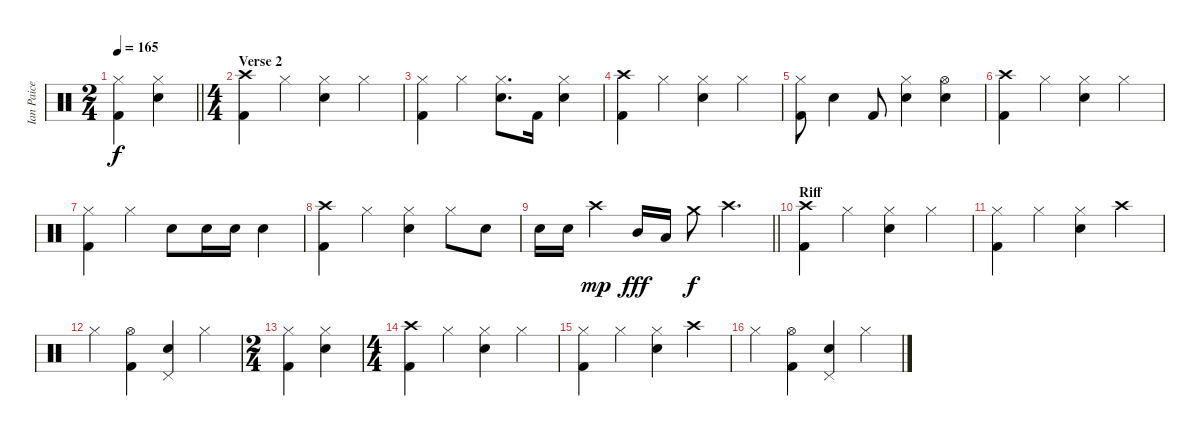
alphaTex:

\track ("Ian Paice" "Ian Paice") {instrument percussion}
\staff {score}
\articulation defaults
\ts (2 4)
\tempo 165
\clef neutral
\barLineRight lightlight
\ks c
("Hi-Hat (closed)" "Kick (hit) 2").4{dy f} ("Hi-Hat (closed)" "Snare (hit) 2").4 |
\ts (4 4)
\section ("" "Verse 2")
("Crash high (hit)" "Kick (hit) 2").4 "Hi-Hat (closed)".4 ("Hi-Hat (closed)" "Snare (hit) 2").4 "Hi-Hat (closed)".4 |
("Hi-Hat (closed)" "Kick (hit) 2").4 "Hi-Hat (closed)".4 ("Hi-Hat (closed)" "Snare (hit) 2").8{d} "Kick (hit) 2".16 ("Hi-Hat (closed)" "Snare (hit) 2").4 |
("Crash high (hit)" "Kick (hit) 2").4 "Hi-Hat (closed)".4 ("Hi-Hat (closed)" "Snare (hit) 2").4 "Hi-Hat (closed)".4 |
("Hi-Hat (closed)" "Kick (hit) 2").8 "Snare (hit) 2".4 "Kick (hit) 2".8 ("Hi-Hat (closed)" "Snare (hit) 2").4 ("Hi-Hat (open)" "Snare (hit) 2").4 |
("Crash high (hit)" "Kick (hit) 2").4 "Hi-Hat (closed)".4 ("Hi-Hat (closed)" "Snare (hit) 2").4 "Hi-Hat (closed)".4 |
("Hi-Hat (closed)" "Kick (hit) 2").4 "Hi-Hat (closed)".4 "Snare (hit) 2".8 "Snare (hit) 2".16 "Snare (hit) 2".16 "Snare (hit) 2".4 |
("Crash high (hit)" "Kick (hit) 2").4 "Hi-Hat (closed)".4 ("Hi-Hat (closed)" "Snare (hit) 2").4 "Hi-Hat (closed)".8 "Snare (hit) 2".8 |
\barLineRight lightlight "Snare (hit) 2".16 "Snare (hit) 2".16 "Crash high (hit)".4{dy mp} "Mid Tom (hit)".16{dy fff} "Low Tom (hit)".16 "Crash medium (hit)".8{dy f} "Crash high (hit)".4{d}
|
\section ("" "Riff")
("Crash high (hit)" "Kick (hit) 2").4 "Hi-Hat (closed)".4 ("Hi-Hat (closed)" "Snare (hit) 2").4 "Hi-Hat (closed)".4 |
("Hi-Hat (closed)" "Kick (hit) 2").4 "Hi-Hat (closed)".4 ("Hi-Hat (closed)" "Snare (hit) 2").4 "Crash high (hit)".4 |
"Hi-Hat (closed)".4 ("Hi-Hat (open)" "Kick (hit) 2").4 ("Pedal Hi-Hat (hit)" "Snare (hit) 2").4 "Hi-Hat (closed)".4 |
\ts (2 4)
("Hi-Hat (closed)" "Kick (hit) 2").4 ("Hi-Hat (closed)" "Snare (hit) 2").4 |
\ts (4 4)
("Crash high (hit)" "Kick (hit) 2").4 "Hi-Hat (closed)".4 ("Hi-Hat (closed)" "Snare (hit) 2").4 "Hi-Hat (closed)".4 |
("Hi-Hat (closed)" "Kick (hit) 2").4 "Hi-Hat (closed)".4 ("Hi-Hat (closed)" "Snare (hit) 2").4 "Crash high (hit)".4 |
"Hi-Hat (closed)".4 ("Hi-Hat (open)" "Kick (hit) 2").4 ("Pedal Hi-Hat (hit)" "Snare (hit) 2").4 "Hi-Hat (closed)".4
